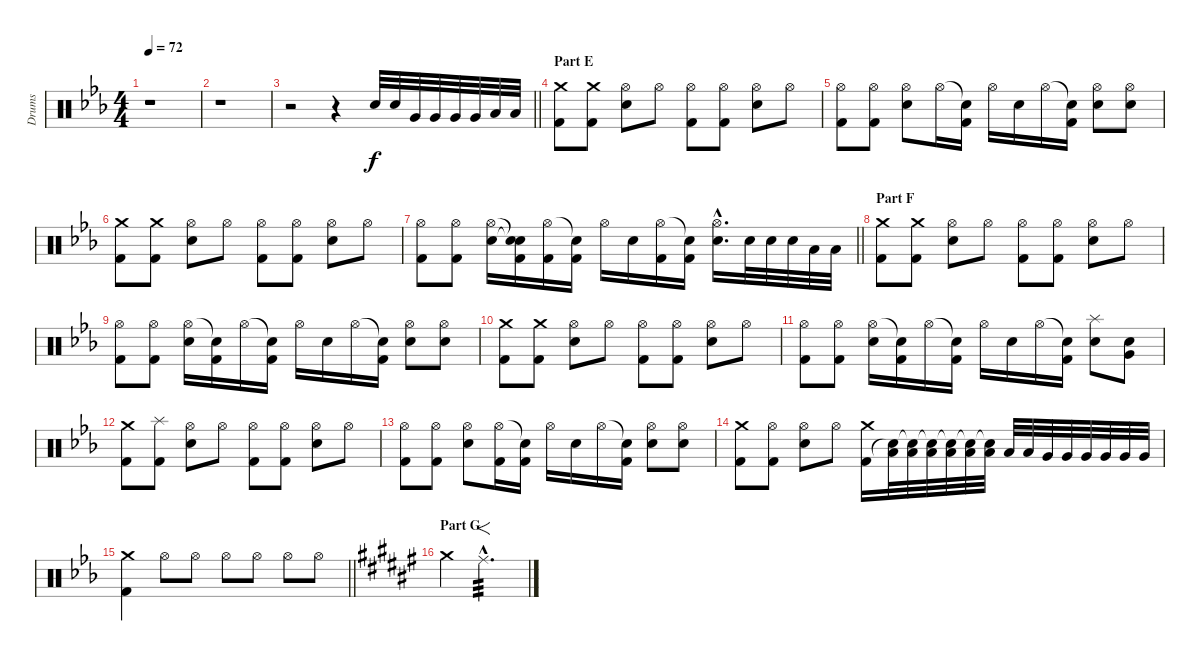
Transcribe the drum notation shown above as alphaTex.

\track ("Drums" "Drums") {instrument percussion}
\staff {score}
\articulation defaults
\ts (4 4)
\tempo 72
\clef neutral
\ks eb
r.1{dy f} |
r.1 |
\barLineRight lightlight
r.2 r.4 "Electric Snare (hit)".32 "Electric Snare (hit)".32 "Very Low Tom (hit)".32 "Very Low Tom (hit)".32 "Very Low Tom (hit)".32 "Very Low Tom (hit)".32 "Low Floor Tom (hit)".32 "Low Floor Tom (hit)".32 |
\section ("" "Part E")
("Crash medium (hit)" "Kick (hit) 2").8 ("Crash medium (hit)" "Kick (hit) 2").8 ("Hi-Hat (open)" "Electric Snare (hit)").8 "Hi-Hat (open)".8 ("Hi-Hat (open)" "Kick (hit) 2").8 ("Hi-Hat (open)" "Kick (hit) 2").8 ("Hi-Hat (open)" "Electric Snare (hit)").8 "Hi-Hat (open)".8 |
("Hi-Hat (open)" "Kick (hit) 2").8 ("Hi-Hat (open)" "Kick (hit) 2").8 ("Hi-Hat (open)" "Electric Snare (hit)").8 "Hi-Hat (open)".16 ("Snare (hit)"{t} "Kick (hit) 2").16 "Hi-Hat (open)".16 "Electric Snare (hit)".16 "Hi-Hat (open)".16 ("Snare (hit)"{t} "Kick (hit) 2").16 ("Hi-Hat (open)" "Electric Snare (hit)").8 ("Hi-Hat (open)" "Electric Snare (hit)").8 |
("Crash medium (hit)" "Kick (hit) 2").8 ("Crash medium (hit)" "Kick (hit) 2").8 ("Hi-Hat (open)" "Electric Snare (hit)").8 "Hi-Hat (open)".8 ("Hi-Hat (open)" "Kick (hit) 2").8 ("Hi-Hat (open)" "Kick (hit) 2").8 ("Hi-Hat (open)" "Electric Snare (hit)").8 "Hi-Hat (open)".8 |
\barLineRight lightlight
("Hi-Hat (open)" "Kick (hit) 2").8 ("Hi-Hat (open)" "Kick (hit) 2").8 ("Hi-Hat (open)" "Electric Snare (hit)").16 ("Snare (hit)"{t} "Snare (hit)"{t} "Kick (hit) 2").16 ("Hi-Hat (open)" "Kick (hit) 2").16 ("Snare (hit)"{t} "Kick (hit) 2").16 "Hi-Hat (open)".16 "Electric Snare (hit)".16 ("Hi-Hat (open)" "Kick (hit) 2").16 ("Snare (hit)"{t} "Kick (hit) 2").16 ("Hi-Hat (open)"{hac} "Electric Snare (hit)"{hac}).16{d} "Electric Snare (hit)".32 "Electric Snare (hit)".32 "Electric Snare (hit)".32 "Low Tom (hit)".32 "Low Tom (hit)".32 |
\section ("" "Part F")
("Crash medium (hit)" "Kick (hit) 2").8 ("Crash medium (hit)" "Kick (hit) 2").8 ("Hi-Hat (open)" "Electric Snare (hit)").8 "Hi-Hat (open)".8 ("Hi-Hat (open)" "Kick (hit) 2").8 ("Hi-Hat (open)" "Kick (hit) 2").8 ("Hi-Hat (open)" "Electric Snare (hit)").8 "Hi-Hat (open)".8 |
("Hi-Hat (open)" "Kick (hit) 2").8 ("Hi-Hat (open)" "Kick (hit) 2").8 ("Hi-Hat (open)" "Electric Snare (hit)").16 ("Snare (hit)"{t} "Kick (hit) 2").16 "Hi-Hat (open)".16 ("Snare (hit)"{t} "Kick (hit) 2").16 "Hi-Hat (open)".16 "Electric Snare (hit)".16 "Hi-Hat (open)".16 ("Snare (hit)"{t} "Kick (hit) 2").16 ("Hi-Hat (open)" "Electric Snare (hit)").8 ("Hi-Hat (open)" "Electric Snare (hit)").8 |
("Crash medium (hit)" "Kick (hit) 2").8 ("Crash medium (hit)" "Kick (hit) 2").8 ("Hi-Hat (open)" "Electric Snare (hit)").8 "Hi-Hat (open)".8 ("Hi-Hat (open)" "Kick (hit) 2").8 ("Hi-Hat (open)" "Kick (hit) 2").8 ("Hi-Hat (open)" "Electric Snare (hit)").8 "Hi-Hat (open)".8 |
("Hi-Hat (open)" "Kick (hit) 2").8 ("Hi-Hat (open)" "Kick (hit) 2").8 ("Hi-Hat (open)" "Electric Snare (hit)").16 ("Snare (hit)"{t} "Kick (hit) 2").16 "Hi-Hat (open)".16 ("Snare (hit)"{t} "Kick (hit) 2").16 "Hi-Hat (open)".16 "Electric Snare (hit)".16 "Hi-Hat (open)".16 ("Snare (hit)"{t} "Kick (hit) 2").16 ("Splash (hit)" "Electric Snare (hit)").8 ("Electric Snare (hit)" "Very Low Tom (hit)").8 |
("Crash medium (hit)" "Kick (hit) 2").8 ("Splash (hit)" "Kick (hit) 2").8 ("Hi-Hat (open)" "Electric Snare (hit)").8 "Hi-Hat (open)".8 ("Hi-Hat (open)" "Kick (hit) 2").8 ("Hi-Hat (open)" "Kick (hit) 2").8 ("Hi-Hat (open)" "Electric Snare (hit)").8 "Hi-Hat (open)".8 |
("Hi-Hat (open)" "Kick (hit) 2").8 ("Hi-Hat (open)" "Kick (hit) 2").8 ("Hi-Hat (open)" "Electric Snare (hit)").8 ("Hi-Hat (open)" "Kick (hit) 2").16 ("Snare (hit)"{t} "Kick (hit) 2").16 "Hi-Hat (open)".16 "Electric Snare (hit)".16 "Hi-Hat (open)".16 ("Snare (hit)"{t} "Kick (hit) 2").16 ("Hi-Hat (open)" "Electric Snare (hit)").8 ("Hi-Hat (open)" "Electric Snare (hit)").8 |
("Crash medium (hit)" "Kick (hit) 2").8 ("Hi-Hat (open)" "Kick (hit) 2").8 ("Hi-Hat (open)" "Electric Snare (hit)").8 "Hi-Hat (open)".8 ("Crash medium (hit)" "Kick (hit) 2").16 ("Low Tom (hit)" "Snare (hit)"{t}).32 ("Low Tom (hit)" "Snare (hit)"{t}).32 ("Low Tom (hit)" "Snare (hit)"{t}).32 ("Low Tom (hit)" "Snare (hit)"{t}).32 ("Low Tom (hit)" "Snare (hit)"{t}).32 ("Low Tom (hit)" "Snare (hit)"{t}).32 "Low Tom (hit)".32 "Low Tom (hit)".32 "Very Low Tom (hit)".32 "Very Low Tom (hit)".32 "Very Low Tom (hit)".32 "Very Low Tom (hit)".32 "Very Low Tom (hit)".32 "Very Low Tom (hit)".32 |
\barLineRight lightlight
("Crash medium (hit)" "Kick (hit) 2").4 "Hi-Hat (open)".8 "Hi-Hat (open)".8 "Hi-Hat (open)".8 "Hi-Hat (open)".8 "Hi-Hat (open)".8 "Hi-Hat (open)".8 |
\section ("" "Part G")
\ks f# "Crash medium (hit)".4 "Ride (middle)"{hac}.2{f d tp 3}
